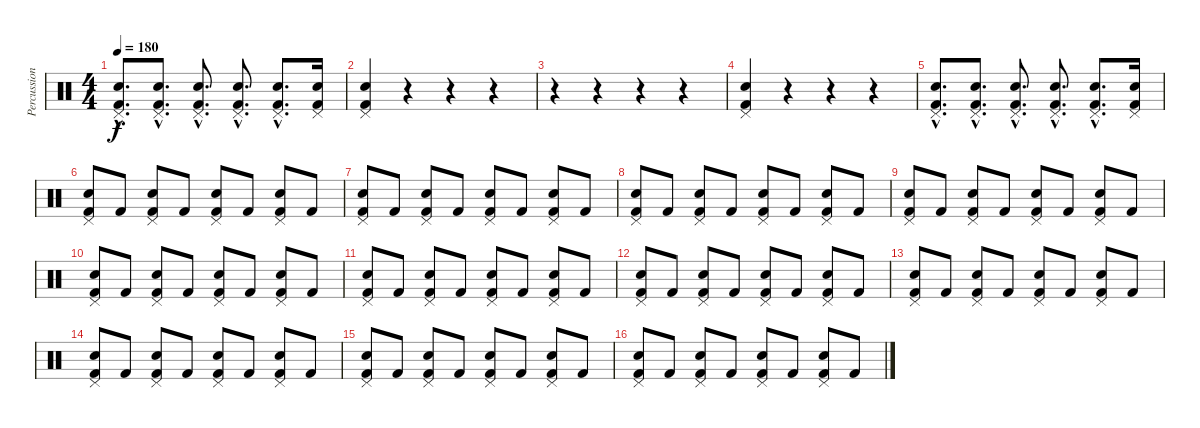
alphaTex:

\track ("Percussion" "Percussion") {instrument percussion}
\staff {score}
\articulation defaults
\ts (4 4)
\tempo 180
\clef neutral
\ks c
("Snare (hit) 2"{hac} "Pedal Hi-Hat (hit)"{hac} "Kick (hit) 2"{hac}).8{d dy f} ("Snare (hit) 2"{hac} "Pedal Hi-Hat (hit)"{hac} "Kick (hit) 2"{hac}).8{d} ("Snare (hit) 2"{hac} "Pedal Hi-Hat (hit)"{hac} "Kick (hit) 2"{hac}).8{d} ("Snare (hit) 2"{hac} "Pedal Hi-Hat (hit)"{hac} "Kick (hit) 2"{hac}).8{d} ("Snare (hit) 2"{hac} "Pedal Hi-Hat (hit)"{hac} "Kick (hit) 2"{hac}).8{d} ("Snare (hit) 2" "Pedal Hi-Hat (hit)" "Kick (hit) 2").16 |
("Snare (hit) 2" "Pedal Hi-Hat (hit)" "Kick (hit) 2").4 r.4 r.4 r.4 |
r.4 r.4 r.4 r.4 |
("Snare (hit) 2" "Pedal Hi-Hat (hit)" "Kick (hit) 2").4 r.4 r.4 r.4 |
("Snare (hit) 2"{hac} "Pedal Hi-Hat (hit)"{hac} "Kick (hit) 2"{hac}).8{d} ("Snare (hit) 2"{hac} "Pedal Hi-Hat (hit)"{hac} "Kick (hit) 2"{hac}).8{d} ("Snare (hit) 2"{hac} "Pedal Hi-Hat (hit)"{hac} "Kick (hit) 2"{hac}).8{d} ("Snare (hit) 2"{hac} "Pedal Hi-Hat (hit)"{hac} "Kick (hit) 2"{hac}).8{d} ("Snare (hit) 2"{hac} "Pedal Hi-Hat (hit)"{hac} "Kick (hit) 2"{hac}).8{d} ("Snare (hit) 2" "Pedal Hi-Hat (hit)" "Kick (hit) 2").16 |
("Snare (hit) 2" "Pedal Hi-Hat (hit)" "Kick (hit) 2").8 "Kick (hit) 2".8 ("Snare (hit) 2" "Pedal Hi-Hat (hit)" "Kick (hit) 2").8 "Kick (hit) 2".8 ("Snare (hit) 2" "Pedal Hi-Hat (hit)" "Kick (hit) 2").8 "Kick (hit) 2".8 ("Snare (hit) 2" "Pedal Hi-Hat (hit)" "Kick (hit) 2").8 "Kick (hit) 2".8 |
("Snare (hit) 2" "Pedal Hi-Hat (hit)" "Kick (hit) 2").8 "Kick (hit) 2".8 ("Snare (hit) 2" "Pedal Hi-Hat (hit)" "Kick (hit) 2").8 "Kick (hit) 2".8 ("Snare (hit) 2" "Pedal Hi-Hat (hit)" "Kick (hit) 2").8 "Kick (hit) 2".8 ("Snare (hit) 2" "Pedal Hi-Hat (hit)" "Kick (hit) 2").8 "Kick (hit) 2".8 |
("Snare (hit) 2" "Pedal Hi-Hat (hit)" "Kick (hit) 2").8 "Kick (hit) 2".8 ("Snare (hit) 2" "Pedal Hi-Hat (hit)" "Kick (hit) 2").8 "Kick (hit) 2".8 ("Snare (hit) 2" "Pedal Hi-Hat (hit)" "Kick (hit) 2").8 "Kick (hit) 2".8 ("Snare (hit) 2" "Pedal Hi-Hat (hit)" "Kick (hit) 2").8 "Kick (hit) 2".8 |
("Snare (hit) 2" "Pedal Hi-Hat (hit)" "Kick (hit) 2").8 "Kick (hit) 2".8 ("Snare (hit) 2" "Pedal Hi-Hat (hit)" "Kick (hit) 2").8 "Kick (hit) 2".8 ("Snare (hit) 2" "Pedal Hi-Hat (hit)" "Kick (hit) 2").8 "Kick (hit) 2".8 ("Snare (hit) 2" "Pedal Hi-Hat (hit)" "Kick (hit) 2").8 "Kick (hit) 2".8 |
("Snare (hit) 2" "Pedal Hi-Hat (hit)" "Kick (hit) 2").8 "Kick (hit) 2".8 ("Snare (hit) 2" "Pedal Hi-Hat (hit)" "Kick (hit) 2").8 "Kick (hit) 2".8 ("Snare (hit) 2" "Pedal Hi-Hat (hit)" "Kick (hit) 2").8 "Kick (hit) 2".8 ("Snare (hit) 2" "Pedal Hi-Hat (hit)" "Kick (hit) 2").8 "Kick (hit) 2".8 |
("Snare (hit) 2" "Pedal Hi-Hat (hit)" "Kick (hit) 2").8 "Kick (hit) 2".8 ("Snare (hit) 2" "Pedal Hi-Hat (hit)" "Kick (hit) 2").8 "Kick (hit) 2".8 ("Snare (hit) 2" "Pedal Hi-Hat (hit)" "Kick (hit) 2").8 "Kick (hit) 2".8 ("Snare (hit) 2" "Pedal Hi-Hat (hit)" "Kick (hit) 2").8 "Kick (hit) 2".8 |
("Snare (hit) 2" "Pedal Hi-Hat (hit)" "Kick (hit) 2").8 "Kick (hit) 2".8 ("Snare (hit) 2" "Pedal Hi-Hat (hit)" "Kick (hit) 2").8 "Kick (hit) 2".8 ("Snare (hit) 2" "Pedal Hi-Hat (hit)" "Kick (hit) 2").8 "Kick (hit) 2".8 ("Snare (hit) 2" "Pedal Hi-Hat (hit)" "Kick (hit) 2").8 "Kick (hit) 2".8 |
("Snare (hit) 2" "Pedal Hi-Hat (hit)" "Kick (hit) 2").8 "Kick (hit) 2".8 ("Snare (hit) 2" "Pedal Hi-Hat (hit)" "Kick (hit) 2").8 "Kick (hit) 2".8 ("Snare (hit) 2" "Pedal Hi-Hat (hit)" "Kick (hit) 2").8 "Kick (hit) 2".8 ("Snare (hit) 2" "Pedal Hi-Hat (hit)" "Kick (hit) 2").8 "Kick (hit) 2".8 |
("Snare (hit) 2" "Pedal Hi-Hat (hit)" "Kick (hit) 2").8 "Kick (hit) 2".8 ("Snare (hit) 2" "Pedal Hi-Hat (hit)" "Kick (hit) 2").8 "Kick (hit) 2".8 ("Snare (hit) 2" "Pedal Hi-Hat (hit)" "Kick (hit) 2").8 "Kick (hit) 2".8 ("Snare (hit) 2" "Pedal Hi-Hat (hit)" "Kick (hit) 2").8 "Kick (hit) 2".8 |
("Snare (hit) 2" "Pedal Hi-Hat (hit)" "Kick (hit) 2").8 "Kick (hit) 2".8 ("Snare (hit) 2" "Pedal Hi-Hat (hit)" "Kick (hit) 2").8 "Kick (hit) 2".8 ("Snare (hit) 2" "Pedal Hi-Hat (hit)" "Kick (hit) 2").8 "Kick (hit) 2".8 ("Snare (hit) 2" "Pedal Hi-Hat (hit)" "Kick (hit) 2").8 "Kick (hit) 2".8 |
("Snare (hit) 2" "Pedal Hi-Hat (hit)" "Kick (hit) 2").8 "Kick (hit) 2".8 ("Snare (hit) 2" "Pedal Hi-Hat (hit)" "Kick (hit) 2").8 "Kick (hit) 2".8 ("Snare (hit) 2" "Pedal Hi-Hat (hit)" "Kick (hit) 2").8 "Kick (hit) 2".8 ("Snare (hit) 2" "Pedal Hi-Hat (hit)" "Kick (hit) 2").8 "Kick (hit) 2".8
